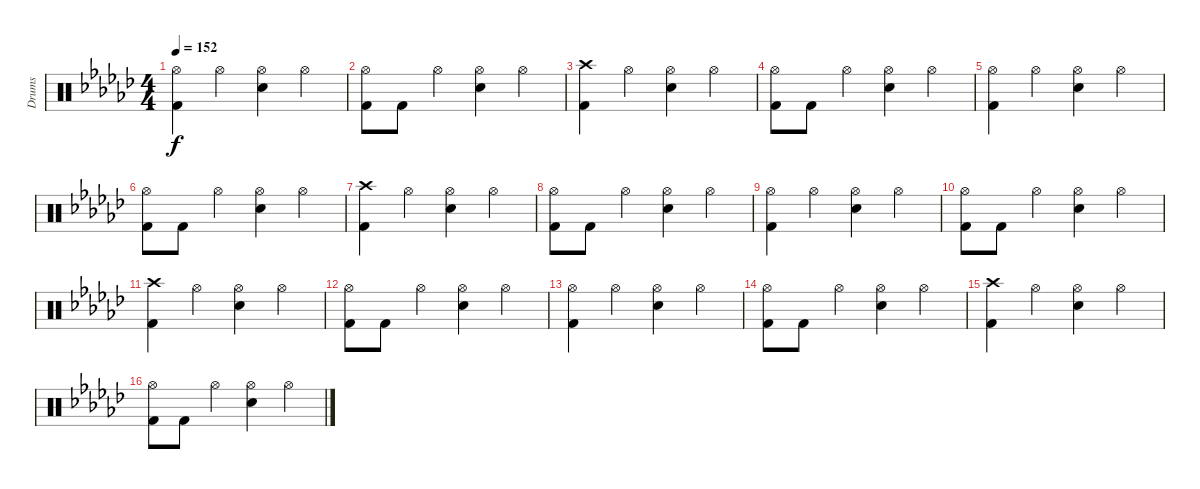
\track ("Drums" "Drums") {instrument percussion}
\staff {score}
\articulation defaults
\ts (4 4)
\tempo 152
\clef neutral
\ks gb
("Hi-Hat (open)" "Kick (hit) 2").4{dy f} "Hi-Hat (open)".4 ("Hi-Hat (open)" "Electric Snare (hit)").4 "Hi-Hat (open)".4 |
("Hi-Hat (open)" "Kick (hit) 2").8 "Kick (hit) 2".8 "Hi-Hat (open)".4 ("Hi-Hat (open)" "Electric Snare (hit)").4 "Hi-Hat (open)".4 |
("Crash high (hit)" "Kick (hit) 2").4 "Hi-Hat (open)".4 ("Hi-Hat (open)" "Electric Snare (hit)").4 "Hi-Hat (open)".4 |
("Hi-Hat (open)" "Kick (hit) 2").8 "Kick (hit) 2".8 "Hi-Hat (open)".4 ("Hi-Hat (open)" "Electric Snare (hit)").4 "Hi-Hat (open)".4 |
("Hi-Hat (open)" "Kick (hit) 2").4 "Hi-Hat (open)".4 ("Hi-Hat (open)" "Electric Snare (hit)").4 "Hi-Hat (open)".4 |
("Hi-Hat (open)" "Kick (hit) 2").8 "Kick (hit) 2".8 "Hi-Hat (open)".4 ("Hi-Hat (open)" "Electric Snare (hit)").4 "Hi-Hat (open)".4 |
("Crash high (hit)" "Kick (hit) 2").4 "Hi-Hat (open)".4 ("Hi-Hat (open)" "Electric Snare (hit)").4 "Hi-Hat (open)".4 |
("Hi-Hat (open)" "Kick (hit) 2").8 "Kick (hit) 2".8 "Hi-Hat (open)".4 ("Hi-Hat (open)" "Electric Snare (hit)").4 "Hi-Hat (open)".4 |
("Hi-Hat (open)" "Kick (hit) 2").4 "Hi-Hat (open)".4 ("Hi-Hat (open)" "Electric Snare (hit)").4 "Hi-Hat (open)".4 |
("Hi-Hat (open)" "Kick (hit) 2").8 "Kick (hit) 2".8 "Hi-Hat (open)".4 ("Hi-Hat (open)" "Electric Snare (hit)").4 "Hi-Hat (open)".4 |
("Crash high (hit)" "Kick (hit) 2").4 "Hi-Hat (open)".4 ("Hi-Hat (open)" "Electric Snare (hit)").4 "Hi-Hat (open)".4 |
("Hi-Hat (open)" "Kick (hit) 2").8 "Kick (hit) 2".8 "Hi-Hat (open)".4 ("Hi-Hat (open)" "Electric Snare (hit)").4 "Hi-Hat (open)".4 |
("Hi-Hat (open)" "Kick (hit) 2").4 "Hi-Hat (open)".4 ("Hi-Hat (open)" "Electric Snare (hit)").4 "Hi-Hat (open)".4 |
("Hi-Hat (open)" "Kick (hit) 2").8 "Kick (hit) 2".8 "Hi-Hat (open)".4 ("Hi-Hat (open)" "Electric Snare (hit)").4 "Hi-Hat (open)".4 |
("Crash high (hit)" "Kick (hit) 2").4 "Hi-Hat (open)".4 ("Hi-Hat (open)" "Electric Snare (hit)").4 "Hi-Hat (open)".4 |
("Hi-Hat (open)" "Kick (hit) 2").8 "Kick (hit) 2".8 "Hi-Hat (open)".4 ("Hi-Hat (open)" "Electric Snare (hit)").4 "Hi-Hat (open)".4
